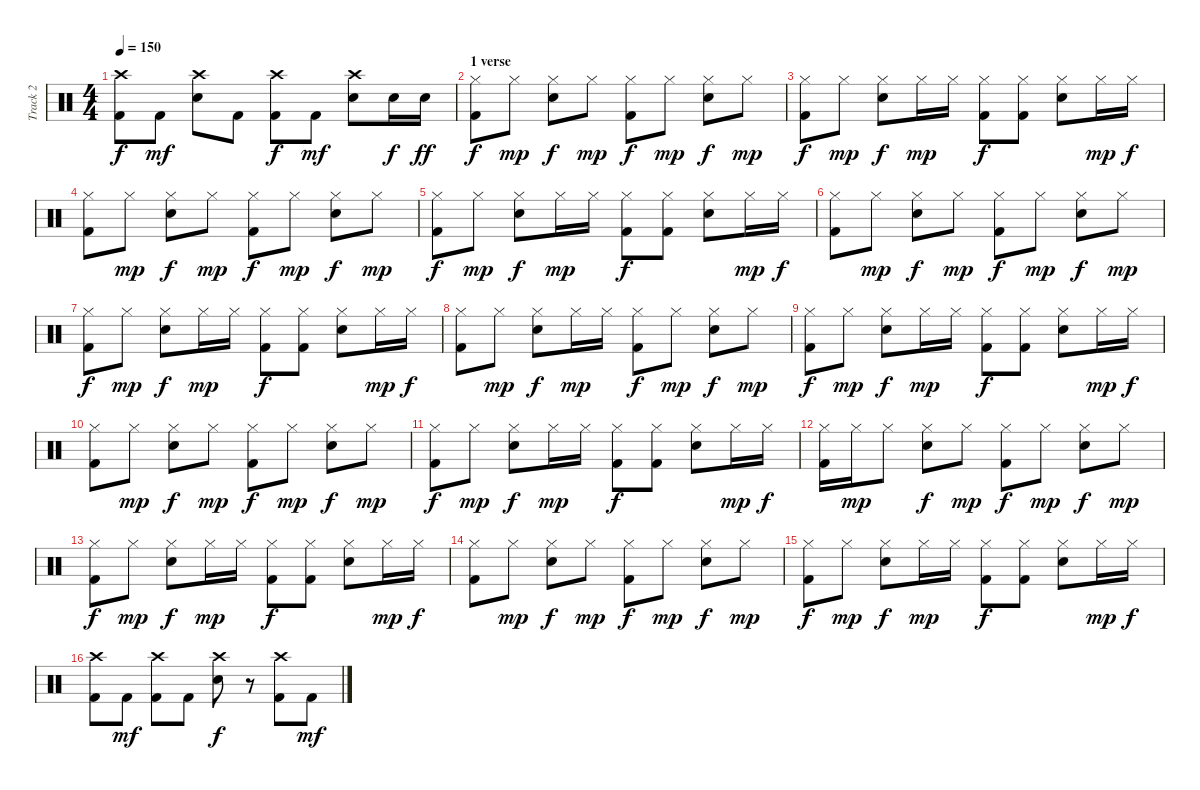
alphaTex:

\track ("Track 2" "Track 2") {instrument percussion}
\staff {score}
\articulation defaults
\ts (4 4)
\tempo 150
\clef neutral
\ks c
("Crash high (hit)" "Kick (hit) 2").8{dy f} "Kick (hit) 2".8{dy mf} ("Crash high (hit)" "Electric Snare (hit)").8 "Kick (hit) 2".8 ("Crash high (hit)" "Kick (hit) 2").8{dy f} "Kick (hit) 2".8{dy mf} ("Crash high (hit)" "Electric Snare (hit)").8 "Electric Snare (hit)".16{dy f} "Electric Snare (hit)".16{dy ff} |
\section ("" "1 verse")
("Hi-Hat (closed)" "Kick (hit) 2").8{dy f} "Hi-Hat (closed)".8{dy mp} ("Hi-Hat (closed)" "Electric Snare (hit)").8{dy f} "Hi-Hat (closed)".8{dy mp} ("Hi-Hat (closed)" "Kick (hit) 2").8{dy f} "Hi-Hat (closed)".8{dy mp} ("Hi-Hat (closed)" "Electric Snare (hit)").8{dy f} "Hi-Hat (closed)".8{dy mp} |
("Hi-Hat (closed)" "Kick (hit) 2").8{dy f} "Hi-Hat (closed)".8{dy mp} ("Hi-Hat (closed)" "Electric Snare (hit)").8{dy f} "Hi-Hat (closed)".16{dy mp} "Hi-Hat (closed)".16 ("Hi-Hat (closed)" "Kick (hit) 2").8{dy f} ("Hi-Hat (closed)" "Kick (hit) 2").8 ("Hi-Hat (closed)" "Electric Snare (hit)").8 "Hi-Hat (closed)".16{dy mp} "Hi-Hat (closed)".16{dy f} |
("Hi-Hat (closed)" "Kick (hit) 2").8 "Hi-Hat (closed)".8{dy mp} ("Hi-Hat (closed)" "Electric Snare (hit)").8{dy f} "Hi-Hat (closed)".8{dy mp} ("Hi-Hat (closed)" "Kick (hit) 2").8{dy f} "Hi-Hat (closed)".8{dy mp} ("Hi-Hat (closed)" "Electric Snare (hit)").8{dy f} "Hi-Hat (closed)".8{dy mp} |
("Hi-Hat (closed)" "Kick (hit) 2").8{dy f} "Hi-Hat (closed)".8{dy mp} ("Hi-Hat (closed)" "Electric Snare (hit)").8{dy f} "Hi-Hat (closed)".16{dy mp} "Hi-Hat (closed)".16 ("Hi-Hat (closed)" "Kick (hit) 2").8{dy f} ("Hi-Hat (closed)" "Kick (hit) 2").8 ("Hi-Hat (closed)" "Electric Snare (hit)").8 "Hi-Hat (closed)".16{dy mp} "Hi-Hat (closed)".16{dy f} |
("Hi-Hat (closed)" "Kick (hit) 2").8 "Hi-Hat (closed)".8{dy mp} ("Hi-Hat (closed)" "Electric Snare (hit)").8{dy f} "Hi-Hat (closed)".8{dy mp} ("Hi-Hat (closed)" "Kick (hit) 2").8{dy f} "Hi-Hat (closed)".8{dy mp} ("Hi-Hat (closed)" "Electric Snare (hit)").8{dy f} "Hi-Hat (closed)".8{dy mp} |
("Hi-Hat (closed)" "Kick (hit) 2").8{dy f} "Hi-Hat (closed)".8{dy mp} ("Hi-Hat (closed)" "Electric Snare (hit)").8{dy f} "Hi-Hat (closed)".16{dy mp} "Hi-Hat (closed)".16 ("Hi-Hat (closed)" "Kick (hit) 2").8{dy f} ("Hi-Hat (closed)" "Kick (hit) 2").8 ("Hi-Hat (closed)" "Electric Snare (hit)").8 "Hi-Hat (closed)".16{dy mp} "Hi-Hat (closed)".16{dy f} |
("Hi-Hat (closed)" "Kick (hit) 2").8 "Hi-Hat (closed)".8{dy mp} ("Hi-Hat (closed)" "Electric Snare (hit)").8{dy f} "Hi-Hat (closed)".16{dy mp} "Hi-Hat (closed)".16 ("Hi-Hat (closed)" "Kick (hit) 2").8{dy f} "Hi-Hat (closed)".8{dy mp} ("Hi-Hat (closed)" "Electric Snare (hit)").8{dy f} "Hi-Hat (closed)".8{dy mp} |
("Hi-Hat (closed)" "Kick (hit) 2").8{dy f} "Hi-Hat (closed)".8{dy mp} ("Hi-Hat (closed)" "Electric Snare (hit)").8{dy f} "Hi-Hat (closed)".16{dy mp} "Hi-Hat (closed)".16 ("Hi-Hat (closed)" "Kick (hit) 2").8{dy f} ("Hi-Hat (closed)" "Kick (hit) 2").8 ("Hi-Hat (closed)" "Electric Snare (hit)").8 "Hi-Hat (closed)".16{dy mp} "Hi-Hat (closed)".16{dy f} |
("Hi-Hat (closed)" "Kick (hit) 2").8 "Hi-Hat (closed)".8{dy mp} ("Hi-Hat (closed)" "Electric Snare (hit)").8{dy f} "Hi-Hat (closed)".8{dy mp} ("Hi-Hat (closed)" "Kick (hit) 2").8{dy f} "Hi-Hat (closed)".8{dy mp} ("Hi-Hat (closed)" "Electric Snare (hit)").8{dy f} "Hi-Hat (closed)".8{dy mp} |
("Hi-Hat (closed)" "Kick (hit) 2").8{dy f} "Hi-Hat (closed)".8{dy mp} ("Hi-Hat (closed)" "Electric Snare (hit)").8{dy f} "Hi-Hat (closed)".16{dy mp} "Hi-Hat (closed)".16 ("Hi-Hat (closed)" "Kick (hit) 2").8{dy f} ("Hi-Hat (closed)" "Kick (hit) 2").8 ("Hi-Hat (closed)" "Electric Snare (hit)").8 "Hi-Hat (closed)".16{dy mp} "Hi-Hat (closed)".16{dy f} |
("Hi-Hat (closed)" "Kick (hit) 2").16 "Hi-Hat (closed)".16{dy mp} "Hi-Hat (closed)".8 ("Hi-Hat (closed)" "Electric Snare (hit)").8{dy f} "Hi-Hat (closed)".8{dy mp} ("Hi-Hat (closed)" "Kick (hit) 2").8{dy f} "Hi-Hat (closed)".8{dy mp} ("Hi-Hat (closed)" "Electric Snare (hit)").8{dy f} "Hi-Hat (closed)".8{dy mp} |
("Hi-Hat (closed)" "Kick (hit) 2").8{dy f} "Hi-Hat (closed)".8{dy mp} ("Hi-Hat (closed)" "Electric Snare (hit)").8{dy f} "Hi-Hat (closed)".16{dy mp} "Hi-Hat (closed)".16 ("Hi-Hat (closed)" "Kick (hit) 2").8{dy f} ("Hi-Hat (closed)" "Kick (hit) 2").8 ("Hi-Hat (closed)" "Electric Snare (hit)").8 "Hi-Hat (closed)".16{dy mp} "Hi-Hat (closed)".16{dy f} |
("Hi-Hat (closed)" "Kick (hit) 2").8 "Hi-Hat (closed)".8{dy mp} ("Hi-Hat (closed)" "Electric Snare (hit)").8{dy f} "Hi-Hat (closed)".8{dy mp} ("Hi-Hat (closed)" "Kick (hit) 2").8{dy f} "Hi-Hat (closed)".8{dy mp} ("Hi-Hat (closed)" "Electric Snare (hit)").8{dy f} "Hi-Hat (closed)".8{dy mp} |
("Hi-Hat (closed)" "Kick (hit) 2").8{dy f} "Hi-Hat (closed)".8{dy mp} ("Hi-Hat (closed)" "Electric Snare (hit)").8{dy f} "Hi-Hat (closed)".16{dy mp} "Hi-Hat (closed)".16 ("Hi-Hat (closed)" "Kick (hit) 2").8{dy f} ("Hi-Hat (closed)" "Kick (hit) 2").8 ("Hi-Hat (closed)" "Electric Snare (hit)").8 "Hi-Hat (closed)".16{dy mp} "Hi-Hat (closed)".16{dy f} |
("Crash high (hit)" "Kick (hit) 2").8 "Kick (hit) 2".8{dy mf} ("Crash high (hit)" "Kick (hit) 2").8 "Kick (hit) 2".8 ("Crash high (hit)" "Electric Snare (hit)").8{dy f} r.8 ("Crash high (hit)" "Kick (hit) 2").8 "Kick (hit) 2".8{dy mf}
